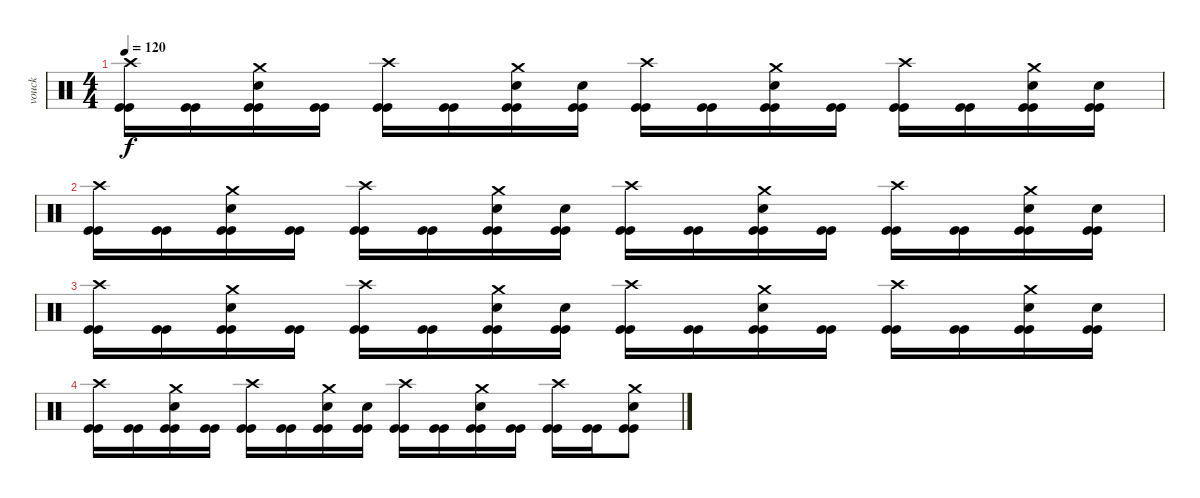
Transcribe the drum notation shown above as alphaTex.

\track ("vouck" "vouck") {instrument percussion}
\staff {score}
\articulation defaults
\ts (4 4)
\tempo 120
\clef neutral
\ks c
("Crash high (hit)" "Kick (hit)" "Kick (hit)").16{dy f} ("Kick (hit)" "Kick (hit)").16 ("Crash medium (hit)" "Electric Snare (hit)" "Kick (hit)" "Kick (hit)").16 ("Kick (hit)" "Kick (hit)").16 ("Crash high (hit)" "Kick (hit)" "Kick (hit)").16 ("Kick (hit)" "Kick (hit)").16 ("Crash medium (hit)" "Electric Snare (hit)" "Kick (hit)" "Kick (hit)").16 ("Electric Snare (hit)" "Kick (hit)" "Kick (hit)").16 ("Crash high (hit)" "Kick (hit)" "Kick (hit)").16 ("Kick (hit)" "Kick (hit)").16 ("Crash medium (hit)" "Electric Snare (hit)" "Kick (hit)" "Kick (hit)").16 ("Kick (hit)" "Kick (hit)").16 ("Crash high (hit)" "Kick (hit)" "Kick (hit)").16 ("Kick (hit)" "Kick (hit)").16 ("Crash medium (hit)" "Electric Snare (hit)" "Kick (hit)" "Kick (hit)").16 ("Electric Snare (hit)" "Kick (hit)" "Kick (hit)").16 |
("Crash high (hit)" "Kick (hit)" "Kick (hit)").16 ("Kick (hit)" "Kick (hit)").16 ("Crash medium (hit)" "Electric Snare (hit)" "Kick (hit)" "Kick (hit)").16 ("Kick (hit)" "Kick (hit)").16 ("Crash high (hit)" "Kick (hit)" "Kick (hit)").16 ("Kick (hit)" "Kick (hit)").16 ("Crash medium (hit)" "Electric Snare (hit)" "Kick (hit)" "Kick (hit)").16 ("Electric Snare (hit)" "Kick (hit)" "Kick (hit)").16 ("Crash high (hit)" "Kick (hit)" "Kick (hit)").16 ("Kick (hit)" "Kick (hit)").16 ("Crash medium (hit)" "Electric Snare (hit)" "Kick (hit)" "Kick (hit)").16 ("Kick (hit)" "Kick (hit)").16 ("Crash high (hit)" "Kick (hit)" "Kick (hit)").16 ("Kick (hit)" "Kick (hit)").16 ("Crash medium (hit)" "Electric Snare (hit)" "Kick (hit)" "Kick (hit)").16 ("Electric Snare (hit)" "Kick (hit)" "Kick (hit)").16 |
("Crash high (hit)" "Kick (hit)" "Kick (hit)").16 ("Kick (hit)" "Kick (hit)").16 ("Crash medium (hit)" "Electric Snare (hit)" "Kick (hit)" "Kick (hit)").16 ("Kick (hit)" "Kick (hit)").16 ("Crash high (hit)" "Kick (hit)" "Kick (hit)").16 ("Kick (hit)" "Kick (hit)").16 ("Crash medium (hit)" "Electric Snare (hit)" "Kick (hit)" "Kick (hit)").16 ("Electric Snare (hit)" "Kick (hit)" "Kick (hit)").16 ("Crash high (hit)" "Kick (hit)" "Kick (hit)").16 ("Kick (hit)" "Kick (hit)").16 ("Crash medium (hit)" "Electric Snare (hit)" "Kick (hit)" "Kick (hit)").16 ("Kick (hit)" "Kick (hit)").16 ("Crash high (hit)" "Kick (hit)" "Kick (hit)").16 ("Kick (hit)" "Kick (hit)").16 ("Crash medium (hit)" "Electric Snare (hit)" "Kick (hit)" "Kick (hit)").16 ("Electric Snare (hit)" "Kick (hit)" "Kick (hit)").16 |
("Crash high (hit)" "Kick (hit)" "Kick (hit)").16 ("Kick (hit)" "Kick (hit)").16 ("Crash medium (hit)" "Electric Snare (hit)" "Kick (hit)" "Kick (hit)").16 ("Kick (hit)" "Kick (hit)").16 ("Crash high (hit)" "Kick (hit)" "Kick (hit)").16 ("Kick (hit)" "Kick (hit)").16 ("Crash medium (hit)" "Electric Snare (hit)" "Kick (hit)" "Kick (hit)").16 ("Electric Snare (hit)" "Kick (hit)" "Kick (hit)").16 ("Crash high (hit)" "Kick (hit)" "Kick (hit)").16 ("Kick (hit)" "Kick (hit)").16 ("Crash medium (hit)" "Electric Snare (hit)" "Kick (hit)" "Kick (hit)").16 ("Kick (hit)" "Kick (hit)").16 ("Crash high (hit)" "Kick (hit)" "Kick (hit)").16 ("Kick (hit)" "Kick (hit)").16 ("Crash medium (hit)" "Electric Snare (hit)" "Kick (hit)" "Kick (hit)").8
